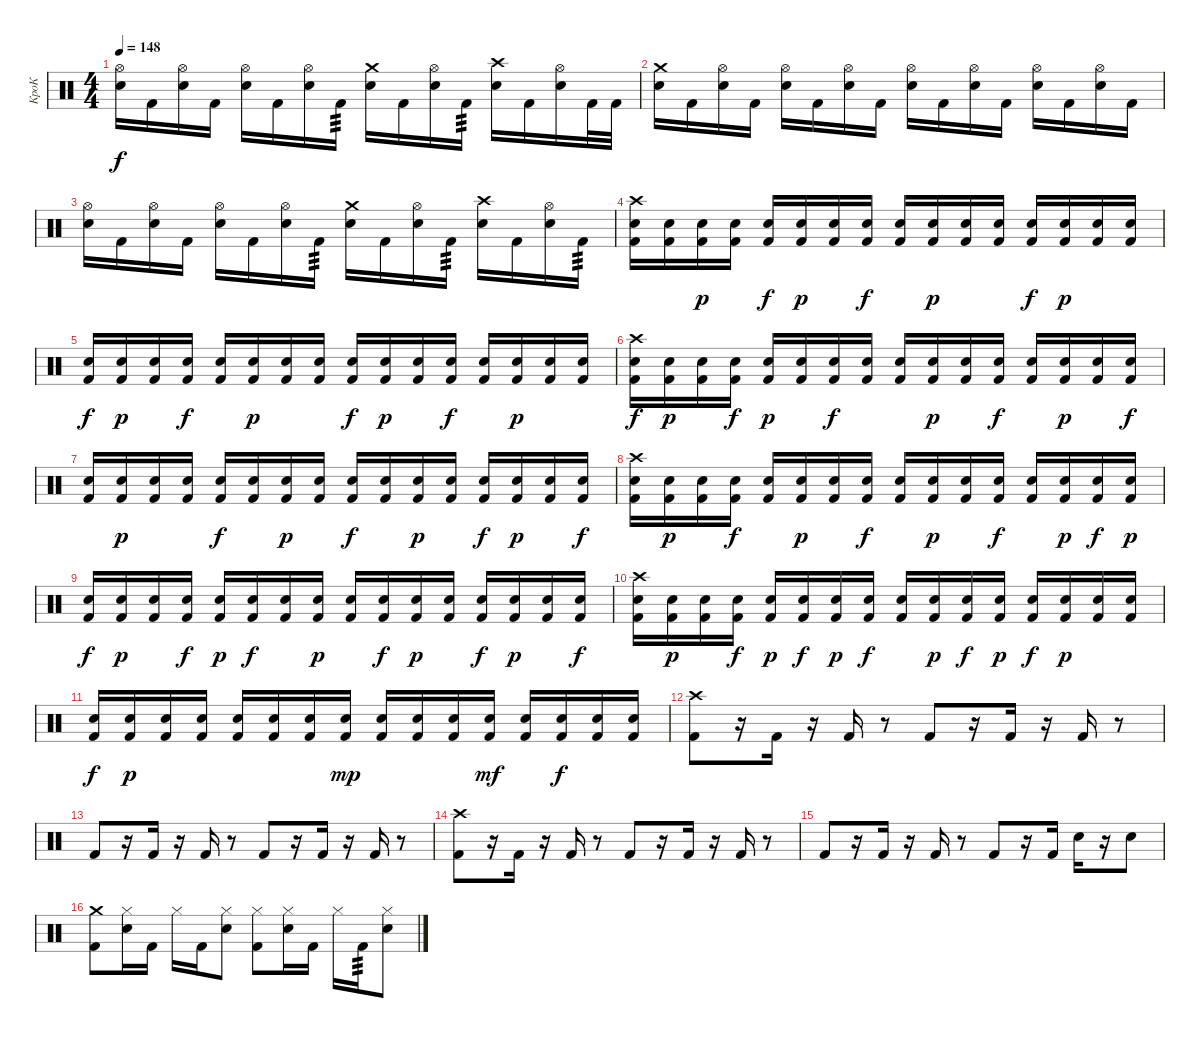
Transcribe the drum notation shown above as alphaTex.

\track ("КроК" "КроК") {instrument percussion}
\staff {score}
\articulation defaults
\ts (4 4)
\tempo 148
\clef neutral
\ks c
("Electric Snare (hit)" "Hi-Hat (open)").16{dy f} "Kick (hit) 2".16 ("Electric Snare (hit)" "Hi-Hat (open)").16 "Kick (hit) 2".16 ("Electric Snare (hit)" "Hi-Hat (open)").16 "Kick (hit) 2".16 ("Electric Snare (hit)" "Hi-Hat (open)").16 "Kick (hit) 2".16{tp 3} ("Electric Snare (hit)" "Crash medium (hit)").16 "Kick (hit) 2".16 ("Electric Snare (hit)" "Hi-Hat (open)").16 "Kick (hit) 2".16{tp 3} ("Electric Snare (hit)" "Crash high (hit)").16 "Kick (hit) 2".16 ("Electric Snare (hit)" "Hi-Hat (open)").16 "Kick (hit) 2".32 "Kick (hit) 2".32 |
("Electric Snare (hit)" "Crash medium (hit)").16 "Kick (hit) 2".16 ("Electric Snare (hit)" "Hi-Hat (open)").16 "Kick (hit) 2".16 ("Electric Snare (hit)" "Hi-Hat (open)").16 "Kick (hit) 2".16 ("Electric Snare (hit)" "Hi-Hat (open)").16 "Kick (hit) 2".16 ("Electric Snare (hit)" "Hi-Hat (open)").16 "Kick (hit) 2".16 ("Electric Snare (hit)" "Hi-Hat (open)").16 "Kick (hit) 2".16 ("Electric Snare (hit)" "Hi-Hat (open)").16 "Kick (hit) 2".16 ("Electric Snare (hit)" "Hi-Hat (open)").16 "Kick (hit) 2".16 |
("Electric Snare (hit)" "Hi-Hat (open)").16 "Kick (hit) 2".16 ("Electric Snare (hit)" "Hi-Hat (open)").16 "Kick (hit) 2".16 ("Electric Snare (hit)" "Hi-Hat (open)").16 "Kick (hit) 2".16 ("Electric Snare (hit)" "Hi-Hat (open)").16 "Kick (hit) 2".16{tp 3} ("Electric Snare (hit)" "Crash medium (hit)").16 "Kick (hit) 2".16 ("Electric Snare (hit)" "Hi-Hat (open)").16 "Kick (hit) 2".16{tp 3} ("Electric Snare (hit)" "Crash high (hit)").16 "Kick (hit) 2".16 ("Electric Snare (hit)" "Hi-Hat (open)").16 "Kick (hit) 2".16{tp 3} |
("Electric Snare (hit)" "Kick (hit) 2" "Crash high (hit)").16 ("Electric Snare (hit)" "Kick (hit) 2").16 ("Electric Snare (hit)" "Kick (hit) 2").16{dy p} ("Electric Snare (hit)" "Kick (hit) 2").16 ("Electric Snare (hit)" "Kick (hit) 2").16{dy f} ("Electric Snare (hit)" "Kick (hit) 2").16{dy p} ("Electric Snare (hit)" "Kick (hit) 2").16 ("Electric Snare (hit)" "Kick (hit) 2").16{dy f} ("Electric Snare (hit)" "Kick (hit) 2").16 ("Electric Snare (hit)" "Kick (hit) 2").16{dy p} ("Electric Snare (hit)" "Kick (hit) 2").16 ("Electric Snare (hit)" "Kick (hit) 2").16 ("Electric Snare (hit)" "Kick (hit) 2").16{dy f} ("Electric Snare (hit)" "Kick (hit) 2").16{dy p} ("Electric Snare (hit)" "Kick (hit) 2").16 ("Electric Snare (hit)" "Kick (hit) 2").16 |
("Electric Snare (hit)" "Kick (hit) 2").16{dy f} ("Electric Snare (hit)" "Kick (hit) 2").16{dy p} ("Electric Snare (hit)" "Kick (hit) 2").16 ("Electric Snare (hit)" "Kick (hit) 2").16{dy f} ("Electric Snare (hit)" "Kick (hit) 2").16 ("Electric Snare (hit)" "Kick (hit) 2").16{dy p} ("Electric Snare (hit)" "Kick (hit) 2").16 ("Electric Snare (hit)" "Kick (hit) 2").16 ("Electric Snare (hit)" "Kick (hit) 2").16{dy f} ("Electric Snare (hit)" "Kick (hit) 2").16{dy p} ("Electric Snare (hit)" "Kick (hit) 2").16 ("Electric Snare (hit)" "Kick (hit) 2").16{dy f} ("Electric Snare (hit)" "Kick (hit) 2").16 ("Electric Snare (hit)" "Kick (hit) 2").16{dy p} ("Electric Snare (hit)" "Kick (hit) 2").16 ("Electric Snare (hit)" "Kick (hit) 2").16 |
("Electric Snare (hit)" "Kick (hit) 2" "Crash high (hit)").16{dy f} ("Electric Snare (hit)" "Kick (hit) 2").16{dy p} ("Electric Snare (hit)" "Kick (hit) 2").16 ("Electric Snare (hit)" "Kick (hit) 2").16{dy f} ("Electric Snare (hit)" "Kick (hit) 2").16{dy p} ("Electric Snare (hit)" "Kick (hit) 2").16 ("Electric Snare (hit)" "Kick (hit) 2").16{dy f} ("Electric Snare (hit)" "Kick (hit) 2").16 ("Electric Snare (hit)" "Kick (hit) 2").16 ("Electric Snare (hit)" "Kick (hit) 2").16{dy p} ("Electric Snare (hit)" "Kick (hit) 2").16 ("Electric Snare (hit)" "Kick (hit) 2").16{dy f} ("Electric Snare (hit)" "Kick (hit) 2").16 ("Electric Snare (hit)" "Kick (hit) 2").16{dy p} ("Electric Snare (hit)" "Kick (hit) 2").16 ("Electric Snare (hit)" "Kick (hit) 2").16{dy f} |
("Electric Snare (hit)" "Kick (hit) 2").16 ("Electric Snare (hit)" "Kick (hit) 2").16{dy p} ("Electric Snare (hit)" "Kick (hit) 2").16 ("Electric Snare (hit)" "Kick (hit) 2").16 ("Electric Snare (hit)" "Kick (hit) 2").16{dy f} ("Electric Snare (hit)" "Kick (hit) 2").16 ("Electric Snare (hit)" "Kick (hit) 2").16{dy p} ("Electric Snare (hit)" "Kick (hit) 2").16 ("Electric Snare (hit)" "Kick (hit) 2").16{dy f} ("Electric Snare (hit)" "Kick (hit) 2").16 ("Electric Snare (hit)" "Kick (hit) 2").16{dy p} ("Electric Snare (hit)" "Kick (hit) 2").16 ("Electric Snare (hit)" "Kick (hit) 2").16{dy f} ("Electric Snare (hit)" "Kick (hit) 2").16{dy p} ("Electric Snare (hit)" "Kick (hit) 2").16 ("Electric Snare (hit)" "Kick (hit) 2").16{dy f} |
("Electric Snare (hit)" "Kick (hit) 2" "Crash high (hit)").16 ("Electric Snare (hit)" "Kick (hit) 2").16{dy p} ("Electric Snare (hit)" "Kick (hit) 2").16 ("Electric Snare (hit)" "Kick (hit) 2").16{dy f} ("Electric Snare (hit)" "Kick (hit) 2").16 ("Electric Snare (hit)" "Kick (hit) 2").16{dy p} ("Electric Snare (hit)" "Kick (hit) 2").16 ("Electric Snare (hit)" "Kick (hit) 2").16{dy f} ("Electric Snare (hit)" "Kick (hit) 2").16 ("Electric Snare (hit)" "Kick (hit) 2").16{dy p} ("Electric Snare (hit)" "Kick (hit) 2").16 ("Electric Snare (hit)" "Kick (hit) 2").16{dy f} ("Electric Snare (hit)" "Kick (hit) 2").16 ("Electric Snare (hit)" "Kick (hit) 2").16{dy p} ("Electric Snare (hit)" "Kick (hit) 2").16{dy f} ("Electric Snare (hit)" "Kick (hit) 2").16{dy p} |
("Electric Snare (hit)" "Kick (hit) 2").16{dy f} ("Electric Snare (hit)" "Kick (hit) 2").16{dy p} ("Electric Snare (hit)" "Kick (hit) 2").16 ("Electric Snare (hit)" "Kick (hit) 2").16{dy f} ("Electric Snare (hit)" "Kick (hit) 2").16{dy p} ("Electric Snare (hit)" "Kick (hit) 2").16{dy f} ("Electric Snare (hit)" "Kick (hit) 2").16 ("Electric Snare (hit)" "Kick (hit) 2").16{dy p} ("Electric Snare (hit)" "Kick (hit) 2").16 ("Electric Snare (hit)" "Kick (hit) 2").16{dy f} ("Electric Snare (hit)" "Kick (hit) 2").16{dy p} ("Electric Snare (hit)" "Kick (hit) 2").16 ("Electric Snare (hit)" "Kick (hit) 2").16{dy f} ("Electric Snare (hit)" "Kick (hit) 2").16{dy p} ("Electric Snare (hit)" "Kick (hit) 2").16 ("Electric Snare (hit)" "Kick (hit) 2").16{dy f} |
("Electric Snare (hit)" "Kick (hit) 2" "Crash high (hit)").16 ("Electric Snare (hit)" "Kick (hit) 2").16{dy p} ("Electric Snare (hit)" "Kick (hit) 2").16 ("Electric Snare (hit)" "Kick (hit) 2").16{dy f} ("Electric Snare (hit)" "Kick (hit) 2").16{dy p} ("Electric Snare (hit)" "Kick (hit) 2").16{dy f} ("Electric Snare (hit)" "Kick (hit) 2").16{dy p} ("Electric Snare (hit)" "Kick (hit) 2").16{dy f} ("Electric Snare (hit)" "Kick (hit) 2").16 ("Electric Snare (hit)" "Kick (hit) 2").16{dy p} ("Electric Snare (hit)" "Kick (hit) 2").16{dy f} ("Electric Snare (hit)" "Kick (hit) 2").16{dy p} ("Electric Snare (hit)" "Kick (hit) 2").16{dy f} ("Electric Snare (hit)" "Kick (hit) 2").16{dy p} ("Electric Snare (hit)" "Kick (hit) 2").16 ("Electric Snare (hit)" "Kick (hit) 2").16 |
("Electric Snare (hit)" "Kick (hit) 2").16{dy f} ("Electric Snare (hit)" "Kick (hit) 2").16{dy p} ("Electric Snare (hit)" "Kick (hit) 2").16 ("Electric Snare (hit)" "Kick (hit) 2").16 ("Electric Snare (hit)" "Kick (hit) 2").16 ("Electric Snare (hit)" "Kick (hit) 2").16 ("Electric Snare (hit)" "Kick (hit) 2").16 ("Electric Snare (hit)" "Kick (hit) 2").16{dy mp} ("Electric Snare (hit)" "Kick (hit) 2").16 ("Electric Snare (hit)" "Kick (hit) 2").16 ("Electric Snare (hit)" "Kick (hit) 2").16 ("Electric Snare (hit)" "Kick (hit) 2").16{dy mf} ("Electric Snare (hit)" "Kick (hit) 2").16 ("Electric Snare (hit)" "Kick (hit) 2").16{dy f} ("Electric Snare (hit)" "Kick (hit) 2").16 ("Electric Snare (hit)" "Kick (hit) 2").16 |
("Kick (hit) 2" "Crash high (hit)").8 r.16 "Kick (hit) 2".16 r.16 "Kick (hit) 2".16 r.8 "Kick (hit) 2".8 r.16 "Kick (hit) 2".16 r.16 "Kick (hit) 2".16 r.8 |
"Kick (hit) 2".8 r.16 "Kick (hit) 2".16 r.16 "Kick (hit) 2".16 r.8 "Kick (hit) 2".8 r.16 "Kick (hit) 2".16 r.16 "Kick (hit) 2".16 r.8 |
("Kick (hit) 2" "Crash high (hit)").8 r.16 "Kick (hit) 2".16 r.16 "Kick (hit) 2".16 r.8 "Kick (hit) 2".8 r.16 "Kick (hit) 2".16 r.16 "Kick (hit) 2".16 r.8 |
"Kick (hit) 2".8 r.16 "Kick (hit) 2".16 r.16 "Kick (hit) 2".16 r.8 "Kick (hit) 2".8 r.16 "Kick (hit) 2".16 "Electric Snare (hit)".16 r.16 "Electric Snare (hit)".8 |
("Kick (hit) 2" "Crash medium (hit)").8 ("Electric Snare (hit)" "Hi-Hat (closed)").16 "Kick (hit) 2".16 "Hi-Hat (closed)".16 "Kick (hit) 2".16 ("Electric Snare (hit)" "Hi-Hat (closed)").8 ("Kick (hit) 2" "Hi-Hat (closed)").8 ("Electric Snare (hit)" "Hi-Hat (closed)").16 "Kick (hit) 2".16 "Hi-Hat (closed)".16 "Kick (hit) 2".16{tp 3} ("Electric Snare (hit)" "Hi-Hat (closed)").8
